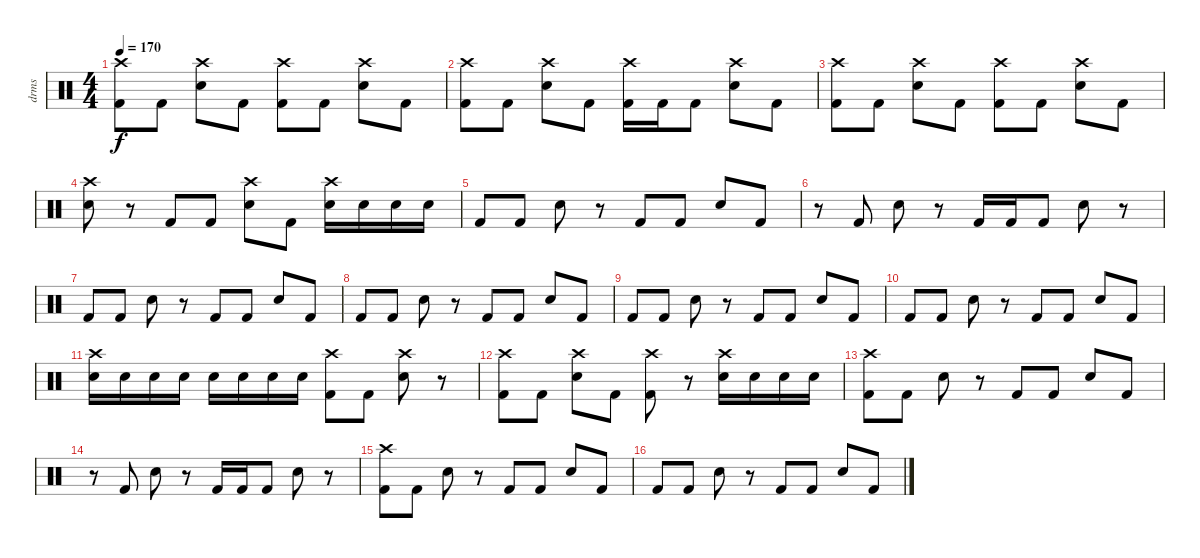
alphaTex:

\track ("drms" "drms") {instrument percussion}
\staff {score}
\articulation defaults
\ts (4 4)
\tempo 170
\clef neutral
\ks c
("Crash high (hit)" "Kick (hit) 2").8{dy f} "Kick (hit) 2".8 ("Crash high (hit)" "Snare (hit) 2").8 "Kick (hit) 2".8 ("Crash high (hit)" "Kick (hit) 2").8 "Kick (hit) 2".8 ("Crash high (hit)" "Snare (hit) 2").8 "Kick (hit) 2".8 |
("Crash high (hit)" "Kick (hit) 2").8 "Kick (hit) 2".8 ("Crash high (hit)" "Snare (hit) 2").8 "Kick (hit) 2".8 ("Crash high (hit)" "Kick (hit) 2").16 "Kick (hit) 2".16 "Kick (hit) 2".8 ("Crash high (hit)" "Snare (hit) 2").8 "Kick (hit) 2".8 |
("Crash high (hit)" "Kick (hit) 2").8 "Kick (hit) 2".8 ("Crash high (hit)" "Snare (hit) 2").8 "Kick (hit) 2".8 ("Crash high (hit)" "Kick (hit) 2").8 "Kick (hit) 2".8 ("Crash high (hit)" "Snare (hit) 2").8 "Kick (hit) 2".8 |
("Crash high (hit)" "Snare (hit) 2").8 r.8 "Kick (hit) 2".8 "Kick (hit) 2".8 ("Crash high (hit)" "Snare (hit) 2").8 "Kick (hit) 2".8 ("Crash high (hit)" "Electric Snare (hit)").16 "Electric Snare (hit)".16 "Electric Snare (hit)".16 "Electric Snare (hit)".16 |
"Kick (hit) 2".8 "Kick (hit) 2".8 "Snare (hit) 2".8 r.8 "Kick (hit) 2".8 "Kick (hit) 2".8 "Snare (hit) 2".8 "Kick (hit) 2".8 |
r.8 "Kick (hit) 2".8 "Snare (hit) 2".8 r.8 "Kick (hit) 2".16 "Kick (hit) 2".16 "Kick (hit) 2".8 "Snare (hit) 2".8 r.8 |
"Kick (hit) 2".8 "Kick (hit) 2".8 "Snare (hit) 2".8 r.8 "Kick (hit) 2".8 "Kick (hit) 2".8 "Snare (hit) 2".8 "Kick (hit) 2".8 |
"Kick (hit) 2".8 "Kick (hit) 2".8 "Snare (hit) 2".8 r.8 "Kick (hit) 2".8 "Kick (hit) 2".8 "Snare (hit) 2".8 "Kick (hit) 2".8 |
"Kick (hit) 2".8 "Kick (hit) 2".8 "Snare (hit) 2".8 r.8 "Kick (hit) 2".8 "Kick (hit) 2".8 "Snare (hit) 2".8 "Kick (hit) 2".8 |
"Kick (hit) 2".8 "Kick (hit) 2".8 "Snare (hit) 2".8 r.8 "Kick (hit) 2".8 "Kick (hit) 2".8 "Snare (hit) 2".8 "Kick (hit) 2".8 |
("Crash high (hit)" "Snare (hit) 2").16 "Snare (hit) 2".16 "Snare (hit) 2".16 "Snare (hit) 2".16 "Snare (hit) 2".16 "Snare (hit) 2".16 "Snare (hit) 2".16 "Snare (hit) 2".16 ("Crash high (hit)" "Kick (hit) 2").8 "Kick (hit) 2".8 ("Crash high (hit)" "Snare (hit) 2").8 r.8 |
("Crash high (hit)" "Kick (hit) 2").8 "Kick (hit) 2".8 ("Crash high (hit)" "Snare (hit) 2").8 "Kick (hit) 2".8 ("Crash high (hit)" "Kick (hit) 2").8 r.8 ("Crash high (hit)" "Electric Snare (hit)").16 "Electric Snare (hit)".16 "Electric Snare (hit)".16 "Electric Snare (hit)".16 |
("Crash high (hit)" "Kick (hit) 2").8 "Kick (hit) 2".8 "Snare (hit) 2".8 r.8 "Kick (hit) 2".8 "Kick (hit) 2".8 "Snare (hit) 2".8 "Kick (hit) 2".8 |
r.8 "Kick (hit) 2".8 "Snare (hit) 2".8 r.8 "Kick (hit) 2".16 "Kick (hit) 2".16 "Kick (hit) 2".8 "Snare (hit) 2".8 r.8 |
("Crash high (hit)" "Kick (hit) 2").8 "Kick (hit) 2".8 "Snare (hit) 2".8 r.8 "Kick (hit) 2".8 "Kick (hit) 2".8 "Snare (hit) 2".8 "Kick (hit) 2".8 |
"Kick (hit) 2".8 "Kick (hit) 2".8 "Snare (hit) 2".8 r.8 "Kick (hit) 2".8 "Kick (hit) 2".8 "Snare (hit) 2".8 "Kick (hit) 2".8
